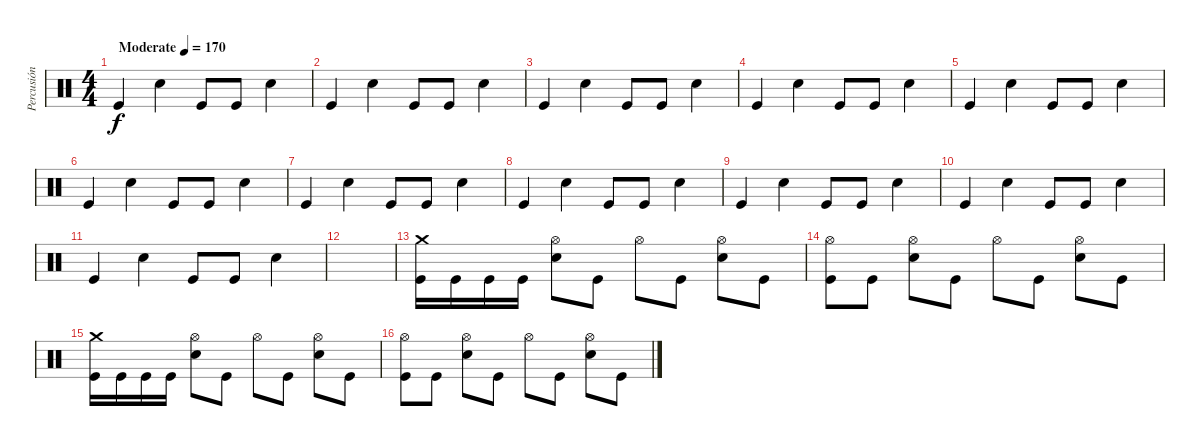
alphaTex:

\track ("Percusión" "Percusión") {instrument percussion}
\staff {score}
\articulation defaults
\ts (4 4)
\tempo (170 "Moderate")
\clef neutral
\ks c "Kick (hit)".4{dy f} "Electric Snare (hit)".4 "Kick (hit)".8 "Kick (hit)".8 "Electric Snare (hit)".4
|
"Kick (hit)".4 "Electric Snare (hit)".4 "Kick (hit)".8 "Kick (hit)".8 "Electric Snare (hit)".4 |
"Kick (hit)".4 "Electric Snare (hit)".4 "Kick (hit)".8 "Kick (hit)".8 "Electric Snare (hit)".4 |
"Kick (hit)".4 "Electric Snare (hit)".4 "Kick (hit)".8 "Kick (hit)".8 "Electric Snare (hit)".4 |
"Kick (hit)".4 "Electric Snare (hit)".4 "Kick (hit)".8 "Kick (hit)".8 "Electric Snare (hit)".4 |
"Kick (hit)".4 "Electric Snare (hit)".4 "Kick (hit)".8 "Kick (hit)".8 "Electric Snare (hit)".4 |
"Kick (hit)".4 "Electric Snare (hit)".4 "Kick (hit)".8 "Kick (hit)".8 "Electric Snare (hit)".4 |
"Kick (hit)".4 "Electric Snare (hit)".4 "Kick (hit)".8 "Kick (hit)".8 "Electric Snare (hit)".4 |
"Kick (hit)".4 "Electric Snare (hit)".4 "Kick (hit)".8 "Kick (hit)".8 "Electric Snare (hit)".4 |
"Kick (hit)".4 "Electric Snare (hit)".4 "Kick (hit)".8 "Kick (hit)".8 "Electric Snare (hit)".4 |
"Kick (hit)".4 "Electric Snare (hit)".4 "Kick (hit)".8 "Kick (hit)".8 "Electric Snare (hit)".4 |
|
("Crash medium (hit)" "Kick (hit)").16 "Kick (hit)".16 "Kick (hit)".16 "Kick (hit)".16 ("Hi-Hat (open)" "Electric Snare (hit)").8 "Kick (hit)".8 "Hi-Hat (open)".8 "Kick (hit)".8 ("Hi-Hat (open)" "Electric Snare (hit)").8 "Kick (hit)".8 |
("Hi-Hat (open)" "Kick (hit)").8 "Kick (hit)".8 ("Hi-Hat (open)" "Electric Snare (hit)").8 "Kick (hit)".8 "Hi-Hat (open)".8 "Kick (hit)".8 ("Hi-Hat (open)" "Electric Snare (hit)").8 "Kick (hit)".8 |
("Crash medium (hit)" "Kick (hit)").16 "Kick (hit)".16 "Kick (hit)".16 "Kick (hit)".16 ("Hi-Hat (open)" "Electric Snare (hit)").8 "Kick (hit)".8 "Hi-Hat (open)".8 "Kick (hit)".8 ("Hi-Hat (open)" "Electric Snare (hit)").8 "Kick (hit)".8 |
("Hi-Hat (open)" "Kick (hit)").8 "Kick (hit)".8 ("Hi-Hat (open)" "Electric Snare (hit)").8 "Kick (hit)".8 "Hi-Hat (open)".8 "Kick (hit)".8 ("Hi-Hat (open)" "Electric Snare (hit)").8 "Kick (hit)".8
